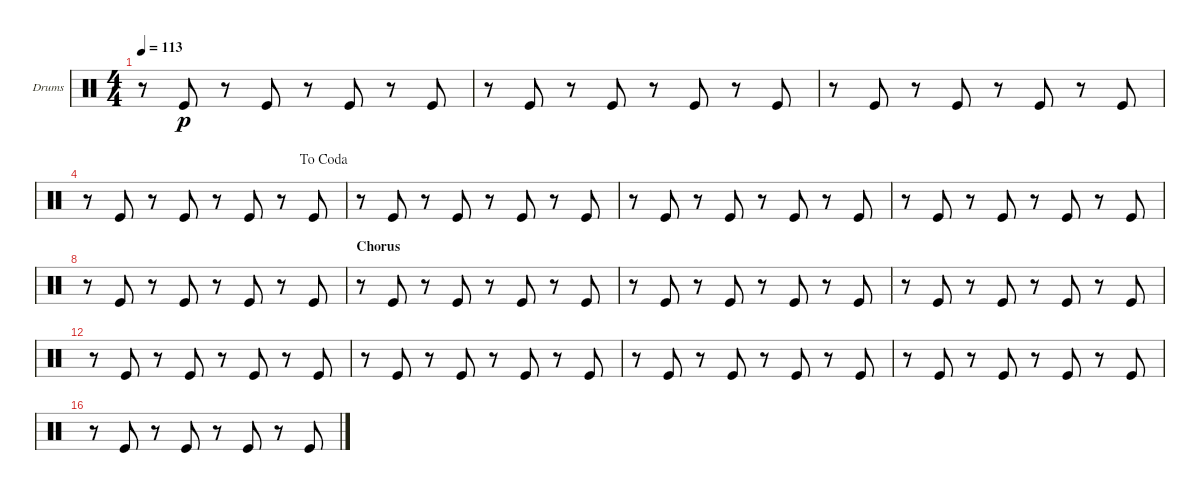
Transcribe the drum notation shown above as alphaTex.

\bracketExtendMode nobrackets
\firstSystemTrackNameOrientation horizontal
\otherSystemsTrackNameOrientation horizontal
\defaultBarNumberDisplay FirstOfSystem
\track ("Drumkit" "Drums") {solo instrument percussion}
\staff {score}
\articulation defaults
\ts (4 4)
\scale
0.287671
\tempo 113
\accidentals auto
\clef neutral
\ottava regular
\simile none
\scale
0.25
\ks c
r.8{dy p} "Kick (hit)".8 r.8 "Kick (hit)".8 r.8 "Kick (hit)".8 r.8 "Kick (hit)".8 |
\scale
0.212329
\scale
0.25 r.8 "Kick (hit)".8 r.8 "Kick (hit)".8 r.8 "Kick (hit)".8 r.8 "Kick (hit)".8 |
\scale
0.287671
\scale
0.25 r.8 "Kick (hit)".8 r.8 "Kick (hit)".8 r.8 "Kick (hit)".8 r.8 "Kick (hit)".8 |
\scale
0.212329
\jump dacoda
\scale
0.25 r.8 "Kick (hit)".8 r.8 "Kick (hit)".8 r.8 "Kick (hit)".8 r.8 "Kick (hit)".8 |
\scale
0.284746
\scale
0.247678 r.8 "Kick (hit)".8 r.8 "Kick (hit)".8 r.8 "Kick (hit)".8 r.8 "Kick (hit)".8 |
\scale
0.210169
\scale
0.247678 r.8 "Kick (hit)".8 r.8 "Kick (hit)".8 r.8 "Kick (hit)".8 r.8 "Kick (hit)".8 |
\scale
0.284746
\scale
0.247678 r.8 "Kick (hit)".8 r.8 "Kick (hit)".8 r.8 "Kick (hit)".8 r.8 "Kick (hit)".8 |
\scale
0.220339
\scale
0.256966 r.8 "Kick (hit)".8 r.8 "Kick (hit)".8 r.8 "Kick (hit)".8 r.8 "Kick (hit)".8 |
\section ("" "Chorus")
\scale
0.25 r.8 "Kick (hit)".8 r.8 "Kick (hit)".8 r.8 "Kick (hit)".8 r.8 "Kick (hit)".8 |
\scale
0.25 r.8 "Kick (hit)".8 r.8 "Kick (hit)".8 r.8 "Kick (hit)".8 r.8 "Kick (hit)".8 |
\scale
0.25 r.8 "Kick (hit)".8 r.8 "Kick (hit)".8 r.8 "Kick (hit)".8 r.8 "Kick (hit)".8 |
\scale
0.25 r.8 "Kick (hit)".8 r.8 "Kick (hit)".8 r.8 "Kick (hit)".8 r.8 "Kick (hit)".8 |
\scale
0.25 r.8 "Kick (hit)".8 r.8 "Kick (hit)".8 r.8 "Kick (hit)".8 r.8 "Kick (hit)".8 |
r.8 "Kick (hit)".8 r.8 "Kick (hit)".8 r.8 "Kick (hit)".8 r.8 "Kick (hit)".8 |
r.8 "Kick (hit)".8 r.8 "Kick (hit)".8 r.8 "Kick (hit)".8 r.8 "Kick (hit)".8 |
\scale
0.25 r.8 "Kick (hit)".8 r.8 "Kick (hit)".8 r.8 "Kick (hit)".8 r.8 "Kick (hit)".8
